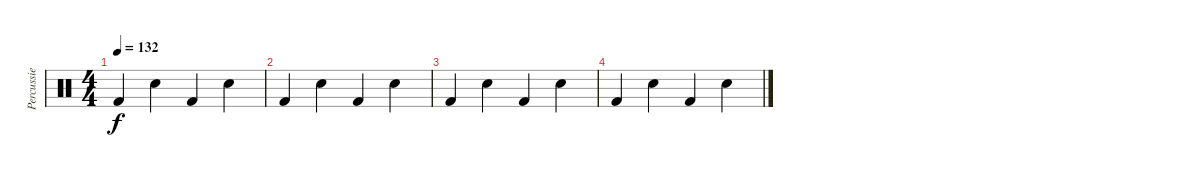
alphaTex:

\track ("Percussie" "Percussie") {instrument percussion}
\staff {score}
\articulation defaults
\ts (4 4)
\tempo 132
\clef neutral
\ks c "Kick (hit) 2".4{dy f} "Electric Snare (hit)".4 "Kick (hit) 2".4 "Electric Snare (hit)".4
|
"Kick (hit) 2".4 "Electric Snare (hit)".4 "Kick (hit) 2".4 "Electric Snare (hit)".4 |
"Kick (hit) 2".4 "Electric Snare (hit)".4 "Kick (hit) 2".4 "Electric Snare (hit)".4 |
"Kick (hit) 2".4 "Electric Snare (hit)".4 "Kick (hit) 2".4 "Electric Snare (hit)".4
